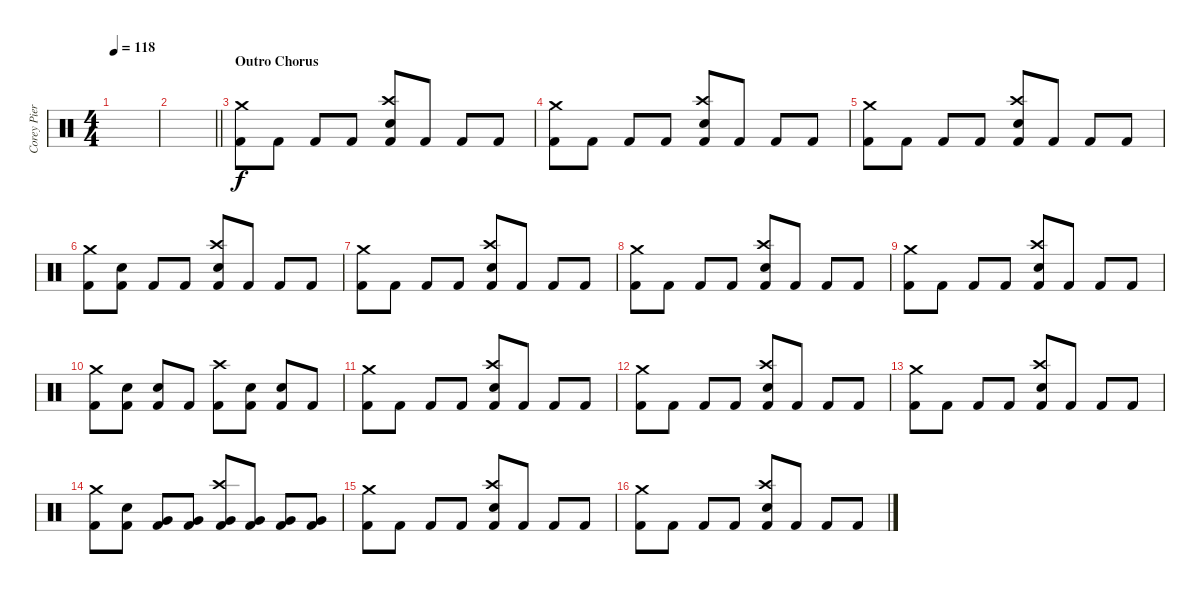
\track ("Corey Pierce" "Corey Pier") {instrument percussion}
\staff {score}
\articulation defaults
\ts (4 4)
\tempo 118
\clef neutral
\ks c
|
\barLineRight lightlight
|
\section ("" "Outro Chorus")
("Crash medium (hit)" "Kick (hit) 2").8{volume 16} "Kick (hit) 2".8 "Kick (hit) 2".8 "Kick (hit) 2".8 ("Crash high (hit)" "Electric Snare (hit)" "Kick (hit) 2").8 "Kick (hit) 2".8 "Kick (hit) 2".8 "Kick (hit) 2".8 |
("Crash medium (hit)" "Kick (hit) 2").8 "Kick (hit) 2".8 "Kick (hit) 2".8 "Kick (hit) 2".8 ("Crash high (hit)" "Electric Snare (hit)" "Kick (hit) 2").8 "Kick (hit) 2".8 "Kick (hit) 2".8 "Kick (hit) 2".8 |
("Crash medium (hit)" "Kick (hit) 2").8 "Kick (hit) 2".8 "Kick (hit) 2".8 "Kick (hit) 2".8 ("Crash high (hit)" "Electric Snare (hit)" "Kick (hit) 2").8 "Kick (hit) 2".8 "Kick (hit) 2".8 "Kick (hit) 2".8 |
("Crash medium (hit)" "Kick (hit) 2").8 ("Electric Snare (hit)" "Kick (hit) 2").8 "Kick (hit) 2".8 "Kick (hit) 2".8 ("Crash high (hit)" "Electric Snare (hit)" "Kick (hit) 2").8 "Kick (hit) 2".8 "Kick (hit) 2".8 "Kick (hit) 2".8 |
("Crash medium (hit)" "Kick (hit) 2").8 "Kick (hit) 2".8 "Kick (hit) 2".8 "Kick (hit) 2".8 ("Crash high (hit)" "Electric Snare (hit)" "Kick (hit) 2").8 "Kick (hit) 2".8 "Kick (hit) 2".8 "Kick (hit) 2".8 |
("Crash medium (hit)" "Kick (hit) 2").8 "Kick (hit) 2".8 "Kick (hit) 2".8 "Kick (hit) 2".8 ("Crash high (hit)" "Electric Snare (hit)" "Kick (hit) 2").8 "Kick (hit) 2".8 "Kick (hit) 2".8 "Kick (hit) 2".8 |
("Crash medium (hit)" "Kick (hit) 2").8 "Kick (hit) 2".8 "Kick (hit) 2".8 "Kick (hit) 2".8 ("Crash high (hit)" "Electric Snare (hit)" "Kick (hit) 2").8 "Kick (hit) 2".8 "Kick (hit) 2".8 "Kick (hit) 2".8 |
("Crash medium (hit)" "Kick (hit) 2").8 ("Electric Snare (hit)" "Kick (hit) 2").8 ("Electric Snare (hit)" "Kick (hit) 2").8 "Kick (hit) 2".8 ("Crash high (hit)" "Kick (hit) 2").8 ("Electric Snare (hit)" "Kick (hit) 2").8 ("Electric Snare (hit)" "Kick (hit) 2").8 "Kick (hit) 2".8 |
("Crash medium (hit)" "Kick (hit) 2").8 "Kick (hit) 2".8 "Kick (hit) 2".8 "Kick (hit) 2".8 ("Crash high (hit)" "Electric Snare (hit)" "Kick (hit) 2").8 "Kick (hit) 2".8 "Kick (hit) 2".8 "Kick (hit) 2".8 |
("Crash medium (hit)" "Kick (hit) 2").8 "Kick (hit) 2".8 "Kick (hit) 2".8 "Kick (hit) 2".8 ("Crash high (hit)" "Electric Snare (hit)" "Kick (hit) 2").8 "Kick (hit) 2".8 "Kick (hit) 2".8 "Kick (hit) 2".8 |
("Crash medium (hit)" "Kick (hit) 2").8 "Kick (hit) 2".8 "Kick (hit) 2".8 "Kick (hit) 2".8 ("Crash high (hit)" "Electric Snare (hit)" "Kick (hit) 2").8 "Kick (hit) 2".8 "Kick (hit) 2".8 "Kick (hit) 2".8 |
("Crash medium (hit)" "Kick (hit) 2").8 ("Electric Snare (hit)" "Kick (hit) 2").8 ("Very Low Tom (hit)" "Kick (hit) 2").8 ("Very Low Tom (hit)" "Kick (hit) 2").8 ("Crash high (hit)" "Very Low Tom (hit)" "Kick (hit) 2").8 ("Very Low Tom (hit)" "Kick (hit) 2").8 ("Very Low Tom (hit)" "Kick (hit) 2").8 ("Very Low Tom (hit)" "Kick (hit) 2").8 |
("Crash medium (hit)" "Kick (hit) 2").8 "Kick (hit) 2".8 "Kick (hit) 2".8 "Kick (hit) 2".8 ("Crash high (hit)" "Electric Snare (hit)" "Kick (hit) 2").8 "Kick (hit) 2".8 "Kick (hit) 2".8 "Kick (hit) 2".8 |
("Crash medium (hit)" "Kick (hit) 2").8 "Kick (hit) 2".8 "Kick (hit) 2".8 "Kick (hit) 2".8 ("Crash high (hit)" "Electric Snare (hit)" "Kick (hit) 2").8 "Kick (hit) 2".8 "Kick (hit) 2".8 "Kick (hit) 2".8
